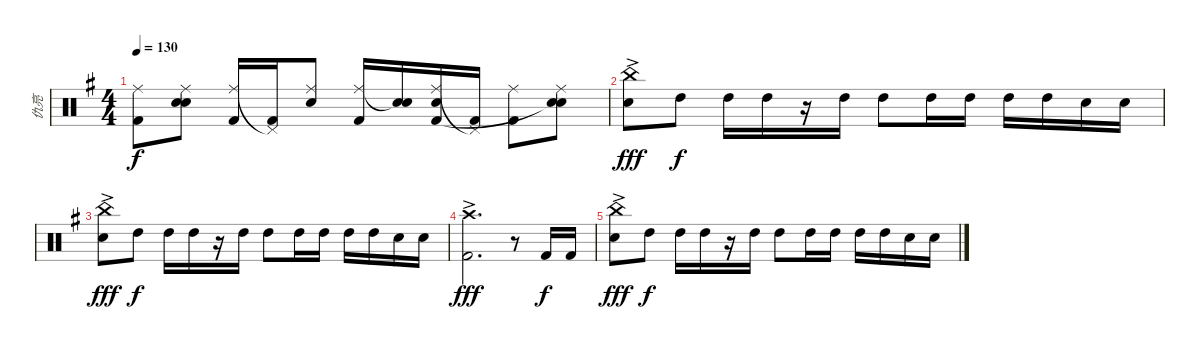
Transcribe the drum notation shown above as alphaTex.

\track ("仇亮" "仇亮") {instrument percussion}
\staff {score}
\articulation defaults
\ts (4 4)
\tempo 130
\clef neutral
\ks g
("Ride (middle)" "Kick (hit) 2").8{dy f} ("Ride (middle)" "Snare (hit) 2" "Snare (hit)"{t}).8 ("Ride (middle)" "Kick (hit) 2").16 ("Pedal Hi-Hat (hit)"{t} "Kick (hit) 2").16 ("Ride (middle)" "Snare (hit) 2").8 ("Ride (middle)" "Kick (hit) 2").16 ("Snare (hit)"{t} "Snare (hit)").16 ("Ride (middle)" "Snare (hit) 2" "Kick (hit) 2").16 ("Pedal Hi-Hat (hit)"{t} "Kick (hit) 2").16 ("Ride (middle)" "Kick (hit) 2").8 ("Ride (middle)" "Snare (hit) 2" "Snare (hit)"{t}).8 |
("China (hit)"{ac} "Snare (hit) 2"{ac}).8{dy fff} "High Tom (hit)".8{dy f} "High Tom (hit)".16 "High Tom (hit)".16 r.16 "High Tom (hit)".16 "High Tom (hit)".8 "High Tom (hit)".16 "High Tom (hit)".16 "High Tom (hit)".16 "High Tom (hit)".16 "Snare (hit) 2".16 "Snare (hit) 2".16 |
("China (hit)"{ac} "Snare (hit) 2"{ac}).8{dy fff} "High Tom (hit)".8{dy f} "High Tom (hit)".16 "High Tom (hit)".16 r.16 "High Tom (hit)".16 "High Tom (hit)".8 "High Tom (hit)".16 "High Tom (hit)".16 "High Tom (hit)".16 "High Tom (hit)".16 "Snare (hit) 2".16 "Snare (hit) 2".16 |
("Crash high (hit)"{ac} "Kick (hit) 2"{ac}).2{d dy fff} r.8 "Kick (hit) 2".16{dy f} "Kick (hit) 2".16 |
("China (hit)"{ac} "Snare (hit) 2"{ac}).8{dy fff} "High Tom (hit)".8{dy f} "High Tom (hit)".16 "High Tom (hit)".16 r.16 "High Tom (hit)".16 "High Tom (hit)".8 "High Tom (hit)".16 "High Tom (hit)".16 "High Tom (hit)".16 "High Tom (hit)".16 "Snare (hit) 2".16 "Snare (hit) 2".16
